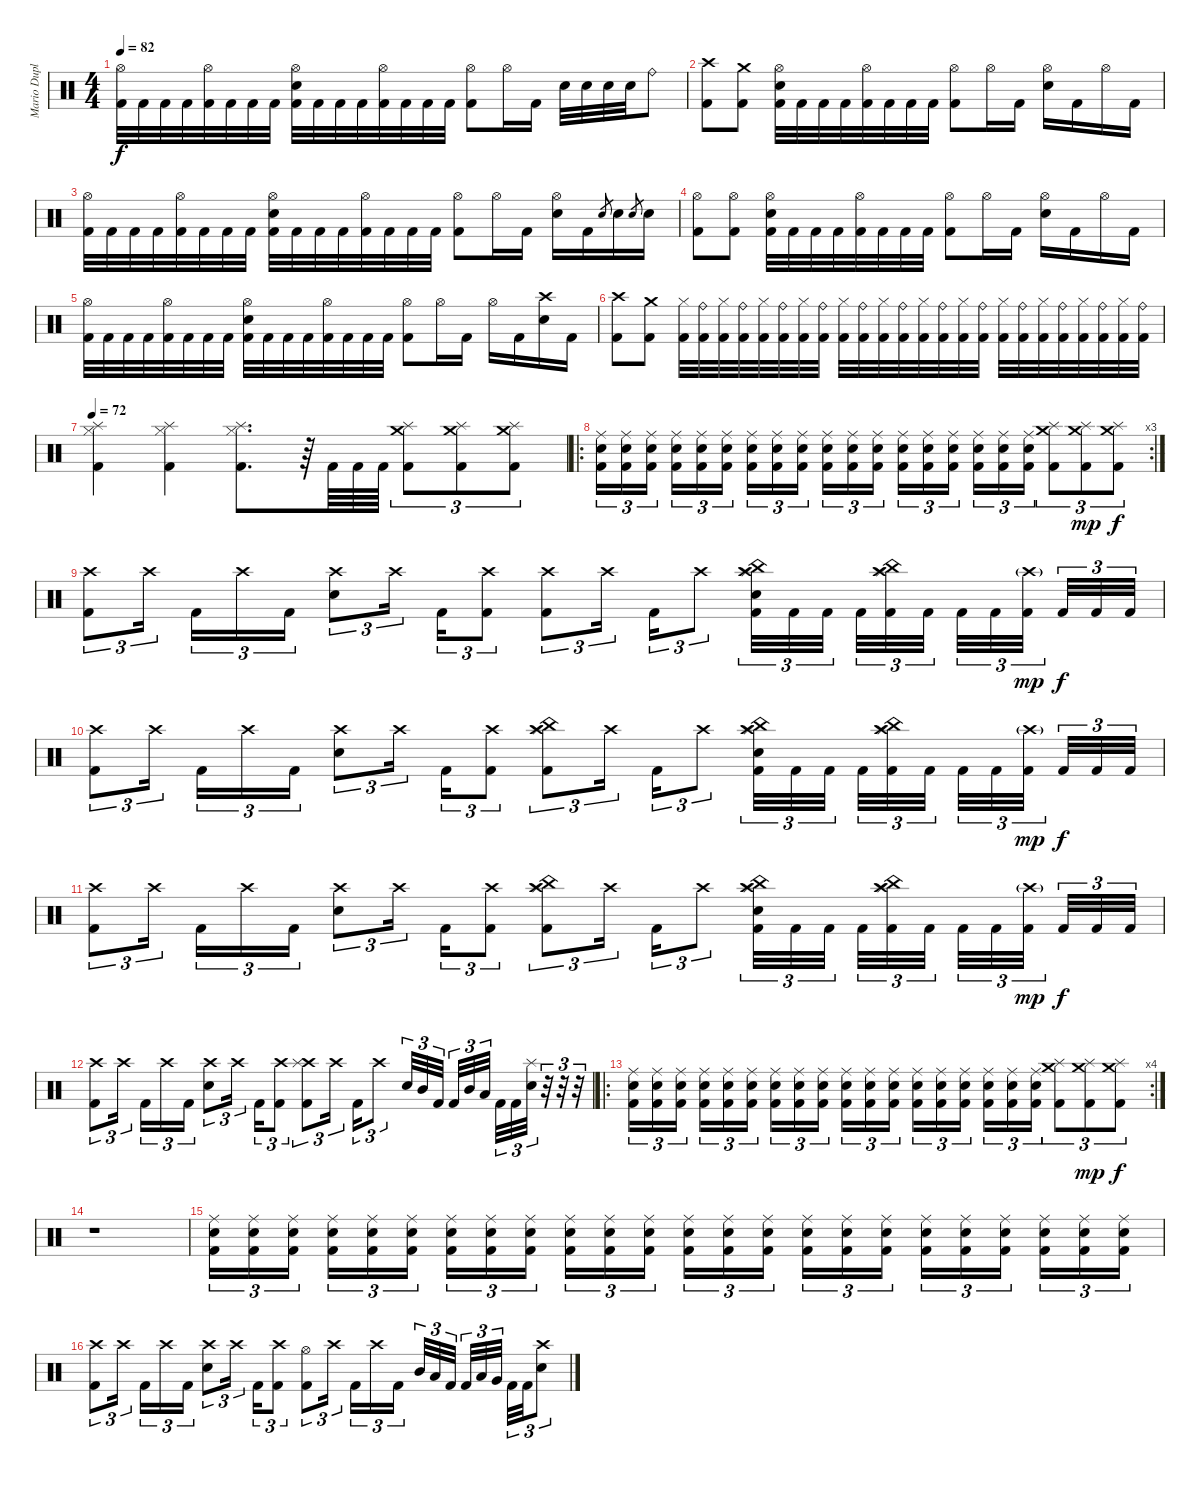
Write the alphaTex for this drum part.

\track ("Mario Duplantier " "Mario Dupl") {instrument percussion}
\staff {score}
\articulation defaults
\ts (4 4)
\tempo 82
\clef neutral
\ks c
("Hi-Hat (open)" "Kick (hit) 2").32{dy f} "Kick (hit) 2".32 "Kick (hit) 2".32 "Kick (hit) 2".32 ("Hi-Hat (open)" "Kick (hit) 2").32 "Kick (hit) 2".32 "Kick (hit) 2".32 "Kick (hit) 2".32 ("Electric Snare (hit)" "Hi-Hat (open)" "Kick (hit) 2").32 "Kick (hit) 2".32 "Kick (hit) 2".32 "Kick (hit) 2".32 ("Hi-Hat (open)" "Kick (hit) 2").32 "Kick (hit) 2".32 "Kick (hit) 2".32 "Kick (hit) 2".32 ("Hi-Hat (open)" "Kick (hit) 2").8 "Hi-Hat (open)".16 "Kick (hit) 2".16 "Electric Snare (hit)".32 "Electric Snare (hit)".32 "Electric Snare (hit)".32 "Electric Snare (hit)".32 "Ride (bell)".8 |
("Crash high (hit)" "Kick (hit) 2").8 ("Crash medium (hit)" "Kick (hit) 2").8 ("Hi-Hat (open)" "Electric Snare (hit)" "Kick (hit) 2").32 "Kick (hit) 2".32 "Kick (hit) 2".32 "Kick (hit) 2".32 ("Hi-Hat (open)" "Kick (hit) 2").32 "Kick (hit) 2".32 "Kick (hit) 2".32 "Kick (hit) 2".32 ("Hi-Hat (open)" "Kick (hit) 2").8 "Hi-Hat (open)".16 "Kick (hit) 2".16 ("Hi-Hat (open)" "Electric Snare (hit)").16 "Kick (hit) 2".16 "Hi-Hat (open)".16 "Kick (hit) 2".16 |
("Hi-Hat (open)" "Kick (hit) 2").32 "Kick (hit) 2".32 "Kick (hit) 2".32 "Kick (hit) 2".32 ("Hi-Hat (open)" "Kick (hit) 2").32 "Kick (hit) 2".32 "Kick (hit) 2".32 "Kick (hit) 2".32 ("Electric Snare (hit)" "Hi-Hat (open)" "Kick (hit) 2").32 "Kick (hit) 2".32 "Kick (hit) 2".32 "Kick (hit) 2".32 ("Hi-Hat (open)" "Kick (hit) 2").32 "Kick (hit) 2".32 "Kick (hit) 2".32 "Kick (hit) 2".32 ("Hi-Hat (open)" "Kick (hit) 2").8 "Hi-Hat (open)".16 "Kick (hit) 2".16 ("Hi-Hat (open)" "Electric Snare (hit)").16 "Kick (hit) 2".16 "Electric Snare (hit)".8{gr} "Electric Snare (hit)".16 "Electric Snare (hit)".8{gr} "Electric Snare (hit)".16 |
("Hi-Hat (open)" "Kick (hit) 2").8 ("Hi-Hat (open)" "Kick (hit) 2").8 ("Hi-Hat (open)" "Electric Snare (hit)" "Kick (hit) 2").32 "Kick (hit) 2".32 "Kick (hit) 2".32 "Kick (hit) 2".32 ("Hi-Hat (open)" "Kick (hit) 2").32 "Kick (hit) 2".32 "Kick (hit) 2".32 "Kick (hit) 2".32 ("Hi-Hat (open)" "Kick (hit) 2").8 "Hi-Hat (open)".16 "Kick (hit) 2".16 ("Hi-Hat (open)" "Electric Snare (hit)").16 "Kick (hit) 2".16 "Hi-Hat (open)".16 "Kick (hit) 2".16 |
("Hi-Hat (open)" "Kick (hit) 2").32 "Kick (hit) 2".32 "Kick (hit) 2".32 "Kick (hit) 2".32 ("Hi-Hat (open)" "Kick (hit) 2").32 "Kick (hit) 2".32 "Kick (hit) 2".32 "Kick (hit) 2".32 ("Electric Snare (hit)" "Hi-Hat (open)" "Kick (hit) 2").32 "Kick (hit) 2".32 "Kick (hit) 2".32 "Kick (hit) 2".32 ("Hi-Hat (open)" "Kick (hit) 2").32 "Kick (hit) 2".32 "Kick (hit) 2".32 "Kick (hit) 2".32 ("Hi-Hat (open)" "Kick (hit) 2").8 "Hi-Hat (open)".16 "Kick (hit) 2".16 "Hi-Hat (open)".16 "Kick (hit) 2".16 ("Crash high (hit)" "Electric Snare (hit)").16 "Kick (hit) 2".16 |
("Crash high (hit)" "Kick (hit) 2").8 ("Crash medium (hit)" "Kick (hit) 2").8 ("Hi-Hat (closed)" "Kick (hit) 2").32 ("Ride (bell)" "Kick (hit) 2").32 ("Hi-Hat (closed)" "Kick (hit) 2").32 ("Ride (bell)" "Kick (hit) 2").32 ("Hi-Hat (closed)" "Kick (hit) 2").32 ("Ride (bell)" "Kick (hit) 2").32 ("Hi-Hat (closed)" "Kick (hit) 2").32 ("Ride (bell)" "Kick (hit) 2").32 ("Hi-Hat (closed)" "Kick (hit) 2").32 ("Ride (bell)" "Kick (hit) 2").32 ("Hi-Hat (closed)" "Kick (hit) 2").32 ("Ride (bell)" "Kick (hit) 2").32 ("Hi-Hat (closed)" "Kick (hit) 2").32 ("Ride (bell)" "Kick (hit) 2").32 ("Hi-Hat (closed)" "Kick (hit) 2").32 ("Ride (bell)" "Kick (hit) 2").32 ("Hi-Hat (closed)" "Kick (hit) 2").32 ("Ride (bell)" "Kick (hit) 2").32 ("Hi-Hat (closed)" "Kick (hit) 2").32 ("Ride (bell)" "Kick (hit) 2").32 ("Hi-Hat (closed)" "Kick (hit) 2").32 ("Ride (bell)" "Kick (hit) 2").32 ("Hi-Hat (closed)" "Kick (hit) 2").32 ("Ride (bell)" "Kick (hit) 2").32 |
\tempo 72
("Splash (hit)" "Hi-Hat (closed)" "Kick (hit) 2").4 ("Splash (hit)" "Hi-Hat (closed)" "Kick (hit) 2").4 ("Splash (hit)" "Hi-Hat (closed)" "Kick (hit) 2").8{d} r.64 "Kick (hit) 2".64 "Kick (hit) 2".64 "Kick (hit) 2".64 ("Crash medium (hit)" "Splash (hit)" "Kick (hit) 2").8{tu (3 2)} ("Crash medium (hit)" "Splash (hit)" "Kick (hit) 2").8{tu (3 2)} ("Crash medium (hit)" "Splash (hit)" "Kick (hit) 2").8{tu (3 2)} |
\ro
\rc 3
("Kick (hit) 2" "Ride (middle)" "Electric Snare (hit)").16{tu (3 2)} ("Kick (hit) 2" "Ride (middle)" "Electric Snare (hit)").16{tu (3 2)} ("Kick (hit) 2" "Ride (middle)" "Electric Snare (hit)").16{tu (3 2) beam splitsecondary} ("Kick (hit) 2" "Ride (middle)" "Electric Snare (hit)").16{tu (3 2)} ("Kick (hit) 2" "Ride (middle)" "Electric Snare (hit)").16{tu (3 2)} ("Kick (hit) 2" "Ride (middle)" "Electric Snare (hit)").16{tu (3 2)} ("Kick (hit) 2" "Ride (middle)" "Electric Snare (hit)").16{tu (3 2)} ("Kick (hit) 2" "Ride (middle)" "Electric Snare (hit)").16{tu (3 2)} ("Kick (hit) 2" "Ride (middle)" "Electric Snare (hit)").16{tu (3 2) beam splitsecondary} ("Kick (hit) 2" "Ride (middle)" "Electric Snare (hit)").16{tu (3 2)} ("Kick (hit) 2" "Ride (middle)" "Electric Snare (hit)").16{tu (3 2)} ("Kick (hit) 2" "Ride (middle)" "Electric Snare (hit)").16{tu (3 2)} ("Kick (hit) 2" "Ride (middle)" "Electric Snare (hit)").16{tu (3 2)} ("Kick (hit) 2" "Ride (middle)" "Electric Snare (hit)").16{tu (3 2)} ("Kick (hit) 2" "Ride (middle)" "Electric Snare (hit)").16{tu (3 2) beam splitsecondary} ("Kick (hit) 2" "Ride (middle)" "Electric Snare (hit)").16{tu (3 2)} ("Kick (hit) 2" "Ride (middle)" "Electric Snare (hit)").16{tu (3 2)} ("Kick (hit) 2" "Ride (middle)" "Electric Snare (hit)").16{tu (3 2)} ("Splash (hit)" "Crash medium (hit)" "Kick (hit) 2").8{tu (3 2)} ("Splash (hit)" "Crash medium (hit)" "Kick (hit) 2").8{tu (3 2) dy mp} ("Splash (hit)" "Crash medium (hit)" "Kick (hit) 2").8{tu (3 2) dy f} |
("Crash high (hit)" "Kick (hit) 2").8{tu (3 2)} "Crash high (hit)".16{tu (3 2) beam splitsecondary} "Kick (hit) 2".16{tu (3 2)} "Crash high (hit)".16{tu (3 2)} "Kick (hit) 2".16{tu (3 2)} ("Crash high (hit)" "Electric Snare (hit)").8{tu (3 2)} "Crash high (hit)".16{tu (3 2) beam splitsecondary} "Kick (hit) 2".16{tu (3 2)} ("Crash high (hit)" "Kick (hit) 2").8{tu (3 2)} ("Crash high (hit)" "Kick (hit) 2").8{tu (3 2)} "Crash high (hit)".16{tu (3 2) beam splitsecondary} "Kick (hit) 2".16{tu (3 2)} "Crash high (hit)".8{tu (3 2)} ("China (hit)" "Crash high (hit)" "Splash (hit)" "Electric Snare (hit)" "Kick (hit) 2").32{tu (3 2)} "Kick (hit) 2".32{tu (3 2)} "Kick (hit) 2".32{tu (3 2) beam splitsecondary} "Kick (hit) 2".32{tu (3 2)} ("China (hit)" "Crash high (hit)" "Splash (hit)" "Kick (hit) 2").32{tu (3 2)} "Kick (hit) 2".32{tu (3 2) beam splitsecondary} "Kick (hit) 2".32{tu (3 2)} "Kick (hit) 2".32{tu (3 2)} ("Crash high (hit)"{g} "Kick (hit) 2").32{tu (3 2) dy mp beam splitsecondary} "Kick (hit) 2".32{tu (3 2) dy f} "Kick (hit) 2".32{tu (3 2)} "Kick (hit) 2".32{tu (3 2)} |
("Crash high (hit)" "Kick (hit) 2").8{tu (3 2)} "Crash high (hit)".16{tu (3 2) beam splitsecondary} "Kick (hit) 2".16{tu (3 2)} "Crash high (hit)".16{tu (3 2)} "Kick (hit) 2".16{tu (3 2)} ("Crash high (hit)" "Electric Snare (hit)").8{tu (3 2)} "Crash high (hit)".16{tu (3 2) beam splitsecondary} "Kick (hit) 2".16{tu (3 2)} ("Crash high (hit)" "Kick (hit) 2").8{tu (3 2)} ("China (hit)" "Crash high (hit)" "Splash (hit)" "Kick (hit) 2").8{tu (3 2)} "Crash high (hit)".16{tu (3 2) beam splitsecondary} "Kick (hit) 2".16{tu (3 2)} "Crash high (hit)".8{tu (3 2)} ("China (hit)" "Crash high (hit)" "Splash (hit)" "Electric Snare (hit)" "Kick (hit) 2").32{tu (3 2)} "Kick (hit) 2".32{tu (3 2)} "Kick (hit) 2".32{tu (3 2) beam splitsecondary} "Kick (hit) 2".32{tu (3 2)} ("China (hit)" "Crash high (hit)" "Splash (hit)" "Kick (hit) 2").32{tu (3 2)} "Kick (hit) 2".32{tu (3 2) beam splitsecondary} "Kick (hit) 2".32{tu (3 2)} "Kick (hit) 2".32{tu (3 2)} ("Crash high (hit)"{g} "Kick (hit) 2").32{tu (3 2) dy mp beam splitsecondary} "Kick (hit) 2".32{tu (3 2) dy f} "Kick (hit) 2".32{tu (3 2)} "Kick (hit) 2".32{tu (3 2)} |
("Crash high (hit)" "Kick (hit) 2").8{tu (3 2)} "Crash high (hit)".16{tu (3 2) beam splitsecondary} "Kick (hit) 2".16{tu (3 2)} "Crash high (hit)".16{tu (3 2)} "Kick (hit) 2".16{tu (3 2)} ("Crash high (hit)" "Electric Snare (hit)").8{tu (3 2)} "Crash high (hit)".16{tu (3 2) beam splitsecondary} "Kick (hit) 2".16{tu (3 2)} ("Crash high (hit)" "Kick (hit) 2").8{tu (3 2)} ("China (hit)" "Crash high (hit)" "Splash (hit)" "Kick (hit) 2").8{tu (3 2)} "Crash high (hit)".16{tu (3 2) beam splitsecondary} "Kick (hit) 2".16{tu (3 2)} "Crash high (hit)".8{tu (3 2)} ("China (hit)" "Crash high (hit)" "Splash (hit)" "Electric Snare (hit)" "Kick (hit) 2").32{tu (3 2)} "Kick (hit) 2".32{tu (3 2)} "Kick (hit) 2".32{tu (3 2) beam splitsecondary} "Kick (hit) 2".32{tu (3 2)} ("China (hit)" "Crash high (hit)" "Splash (hit)" "Kick (hit) 2").32{tu (3 2)} "Kick (hit) 2".32{tu (3 2) beam splitsecondary} "Kick (hit) 2".32{tu (3 2)} "Kick (hit) 2".32{tu (3 2)} ("Crash high (hit)"{g} "Kick (hit) 2").32{tu (3 2) dy mp beam splitsecondary} "Kick (hit) 2".32{tu (3 2) dy f} "Kick (hit) 2".32{tu (3 2)} "Kick (hit) 2".32{tu (3 2)} |
("Crash high (hit)" "Kick (hit) 2").8{tu (3 2)} "Crash high (hit)".16{tu (3 2) beam splitsecondary} "Kick (hit) 2".16{tu (3 2)} "Crash high (hit)".16{tu (3 2)} "Kick (hit) 2".16{tu (3 2)} ("Crash high (hit)" "Electric Snare (hit)").8{tu (3 2)} "Crash high (hit)".16{tu (3 2) beam splitsecondary} "Kick (hit) 2".16{tu (3 2)} ("Crash high (hit)" "Kick (hit) 2").8{tu (3 2)} ("Crash high (hit)" "Splash (hit)" "Kick (hit) 2").8{tu (3 2)} "Crash high (hit)".16{tu (3 2) beam splitsecondary} "Kick (hit) 2".16{tu (3 2)} "Crash high (hit)".8{tu (3 2)} "Electric Snare (hit)".32{tu (3 2)} "Mid Tom (hit)".32{tu (3 2)} "Kick (hit) 2".32{tu (3 2) beam splitsecondary} "Kick (hit) 2".32{tu (3 2)} "Mid Tom (hit)".32{tu (3 2)} "Low Tom (hit)".32{tu (3 2) beam splitsecondary} "Kick (hit) 2".32{tu (3 2)} "Kick (hit) 2".32{tu (3 2)} ("Splash (hit)" "Electric Snare (hit)").32{tu (3 2)} r.32{tu (3 2)} r.32{tu (3 2)} r.32{tu (3 2)} |
\ro
\rc 4
("Kick (hit) 2" "Ride (middle)" "Electric Snare (hit)").16{tu (3 2)} ("Kick (hit) 2" "Ride (middle)" "Electric Snare (hit)").16{tu (3 2)} ("Kick (hit) 2" "Ride (middle)" "Electric Snare (hit)").16{tu (3 2) beam splitsecondary} ("Kick (hit) 2" "Ride (middle)" "Electric Snare (hit)").16{tu (3 2)} ("Kick (hit) 2" "Ride (middle)" "Electric Snare (hit)").16{tu (3 2)} ("Kick (hit) 2" "Ride (middle)" "Electric Snare (hit)").16{tu (3 2)} ("Kick (hit) 2" "Ride (middle)" "Electric Snare (hit)").16{tu (3 2)} ("Kick (hit) 2" "Ride (middle)" "Electric Snare (hit)").16{tu (3 2)} ("Kick (hit) 2" "Ride (middle)" "Electric Snare (hit)").16{tu (3 2) beam splitsecondary} ("Kick (hit) 2" "Ride (middle)" "Electric Snare (hit)").16{tu (3 2)} ("Kick (hit) 2" "Ride (middle)" "Electric Snare (hit)").16{tu (3 2)} ("Kick (hit) 2" "Ride (middle)" "Electric Snare (hit)").16{tu (3 2)} ("Kick (hit) 2" "Ride (middle)" "Electric Snare (hit)").16{tu (3 2)} ("Kick (hit) 2" "Ride (middle)" "Electric Snare (hit)").16{tu (3 2)} ("Kick (hit) 2" "Ride (middle)" "Electric Snare (hit)").16{tu (3 2) beam splitsecondary} ("Kick (hit) 2" "Ride (middle)" "Electric Snare (hit)").16{tu (3 2)} ("Kick (hit) 2" "Ride (middle)" "Electric Snare (hit)").16{tu (3 2)} ("Kick (hit) 2" "Ride (middle)" "Electric Snare (hit)").16{tu (3 2)} ("Splash (hit)" "Crash medium (hit)" "Kick (hit) 2").8{tu (3 2)} ("Splash (hit)" "Crash medium (hit)" "Kick (hit) 2").8{tu (3 2) dy mp} ("Splash (hit)" "Crash medium (hit)" "Kick (hit) 2").8{tu (3 2) dy f} |
r.1 |
("Kick (hit) 2" "Ride (middle)" "Electric Snare (hit)").16{tu (3 2)} ("Kick (hit) 2" "Ride (middle)" "Electric Snare (hit)").16{tu (3 2)} ("Kick (hit) 2" "Ride (middle)" "Electric Snare (hit)").16{tu (3 2) beam splitsecondary} ("Kick (hit) 2" "Ride (middle)" "Electric Snare (hit)").16{tu (3 2)} ("Kick (hit) 2" "Ride (middle)" "Electric Snare (hit)").16{tu (3 2)} ("Kick (hit) 2" "Ride (middle)" "Electric Snare (hit)").16{tu (3 2)} ("Kick (hit) 2" "Ride (middle)" "Electric Snare (hit)").16{tu (3 2)} ("Kick (hit) 2" "Ride (middle)" "Electric Snare (hit)").16{tu (3 2)} ("Kick (hit) 2" "Ride (middle)" "Electric Snare (hit)").16{tu (3 2) beam splitsecondary} ("Kick (hit) 2" "Ride (middle)" "Electric Snare (hit)").16{tu (3 2)} ("Kick (hit) 2" "Ride (middle)" "Electric Snare (hit)").16{tu (3 2)} ("Kick (hit) 2" "Ride (middle)" "Electric Snare (hit)").16{tu (3 2)} ("Kick (hit) 2" "Ride (middle)" "Electric Snare (hit)").16{tu (3 2)} ("Kick (hit) 2" "Ride (middle)" "Electric Snare (hit)").16{tu (3 2)} ("Kick (hit) 2" "Ride (middle)" "Electric Snare (hit)").16{tu (3 2) beam splitsecondary} ("Kick (hit) 2" "Ride (middle)" "Electric Snare (hit)").16{tu (3 2)} ("Kick (hit) 2" "Ride (middle)" "Electric Snare (hit)").16{tu (3 2)} ("Kick (hit) 2" "Ride (middle)" "Electric Snare (hit)").16{tu (3 2)} ("Electric Snare (hit)" "Ride (middle)" "Kick (hit) 2").16{tu (3 2)} ("Electric Snare (hit)" "Ride (middle)" "Kick (hit) 2").16{tu (3 2)} ("Electric Snare (hit)" "Ride (middle)" "Kick (hit) 2").16{tu (3 2) beam splitsecondary} ("Electric Snare (hit)" "Ride (middle)" "Kick (hit) 2").16{tu (3 2)} ("Electric Snare (hit)" "Ride (middle)" "Kick (hit) 2").16{tu (3 2)} ("Electric Snare (hit)" "Ride (middle)" "Kick (hit) 2").16{tu (3 2)} |
("Kick (hit) 2" "Crash high (hit)").8{tu (3 2)} "Crash high (hit)".16{tu (3 2) beam splitsecondary} "Kick (hit) 2".16{tu (3 2)} "Crash high (hit)".16{tu (3 2)} "Kick (hit) 2".16{tu (3 2)} ("Crash high (hit)" "Electric Snare (hit)").8{tu (3 2)} "Crash high (hit)".16{tu (3 2) beam splitsecondary} "Kick (hit) 2".16{tu (3 2)} ("Crash high (hit)" "Kick (hit) 2").8{tu (3 2)} ("Hi-Hat (open)" "Kick (hit) 2").8{tu (3 2)} "Crash high (hit)".16{tu (3 2) beam splitsecondary} "Kick (hit) 2".16{tu (3 2)} "Crash high (hit)".16{tu (3 2)} "Kick (hit) 2".16{tu (3 2)} "Mid Tom (hit)".32{tu (3 2)} "Low Tom (hit)".32{tu (3 2)} "Kick (hit) 2".32{tu (3 2) beam splitsecondary} "Kick (hit) 2".32{tu (3 2)} "Low Tom (hit)".32{tu (3 2)} "Very Low Tom (hit)".32{tu (3 2) beam splitsecondary} "Kick (hit) 2".32{tu (3 2)} "Kick (hit) 2".32{tu (3 2)} ("Crash high (hit)" "Electric Snare (hit)").8{tu (3 2)}
